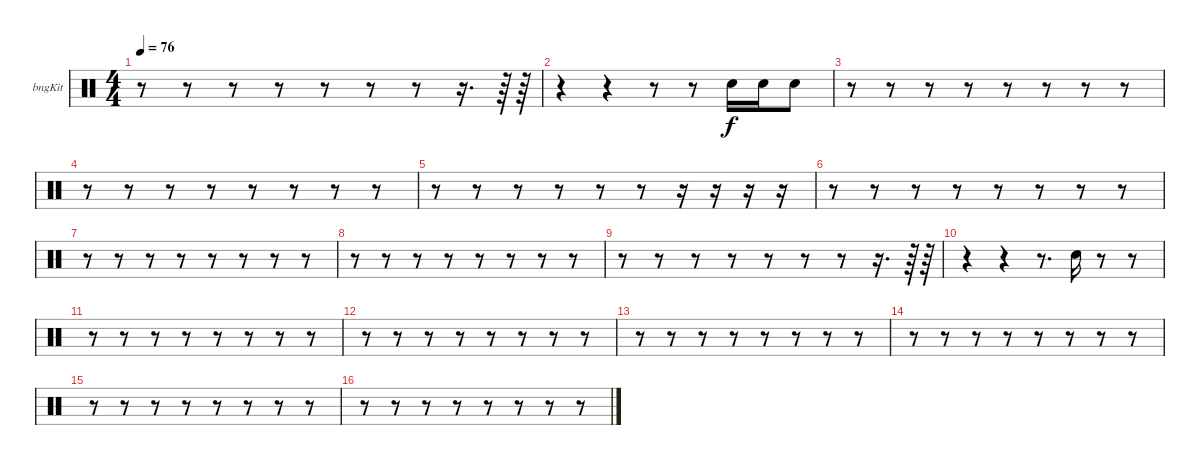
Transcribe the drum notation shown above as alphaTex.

\bracketExtendMode groupsimilarinstruments
\firstSystemTrackNameOrientation horizontal
\otherSystemsTrackNameOrientation horizontal
\track ("Bongos" "bngKit") {instrument percussion}
\staff {score}
\articulation defaults
\ts (4 4)
\tempo 76
\clef neutral
\ks c
r.8{dy f} r.8 r.8 r.8 r.8 r.8 r.8 r.16{d} r.64 r.64 |
r.4 r.4 r.8 r.8 "Snare (hit) 2".16 "Snare (hit) 2".16 "Snare (hit) 2".8 |
r.8 r.8 r.8 r.8 r.8 r.8 r.8 r.8 |
r.8 r.8 r.8 r.8 r.8 r.8 r.8 r.8 |
r.8 r.8 r.8 r.8 r.8 r.8 r.16 r.16 r.16 r.16 |
r.8 r.8 r.8 r.8 r.8 r.8 r.8 r.8 |
r.8 r.8 r.8 r.8 r.8 r.8 r.8 r.8 |
r.8 r.8 r.8 r.8 r.8 r.8 r.8 r.8 |
r.8 r.8 r.8 r.8 r.8 r.8 r.8 r.16{d} r.64 r.64 |
r.4 r.4 r.8{d} "Snare (hit) 2".16 r.8 r.8 |
r.8 r.8 r.8 r.8 r.8 r.8 r.8 r.8 |
r.8 r.8 r.8 r.8 r.8 r.8 r.8 r.8 |
r.8 r.8 r.8 r.8 r.8 r.8 r.8 r.8 |
r.8 r.8 r.8 r.8 r.8 r.8 r.8 r.8 |
r.8 r.8 r.8 r.8 r.8 r.8 r.8 r.8 |
r.8 r.8 r.8 r.8 r.8 r.8 r.8 r.8
